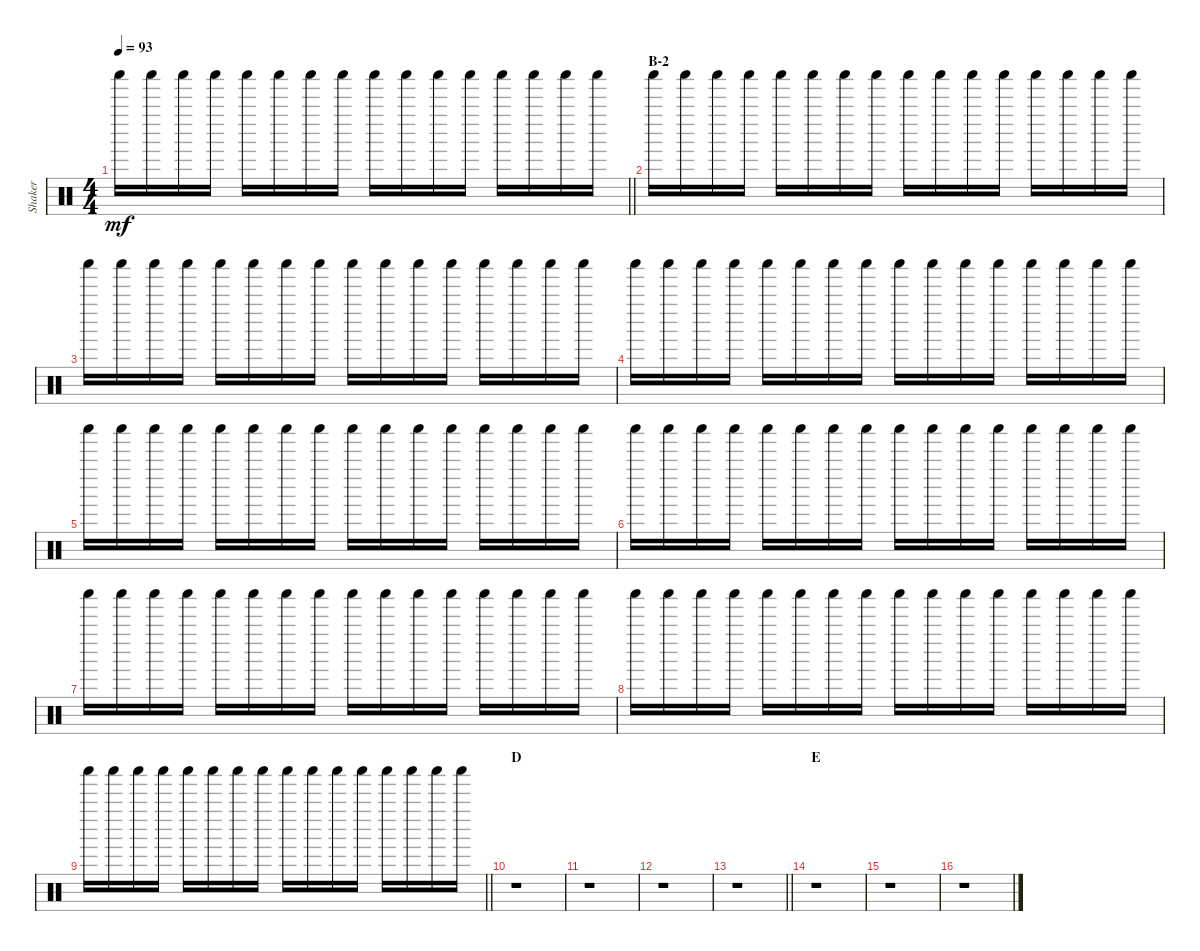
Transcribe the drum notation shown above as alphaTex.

\track ("Shaker" "Shaker") {instrument percussion}
\staff {score}
\articulation defaults
\ts (4 4)
\tempo 93
\clef neutral
\barLineRight lightlight
\ks c "Shaker (hit)".16{dy mf} "Shaker (hit)".16 "Shaker (hit)".16 "Shaker (hit)".16 "Shaker (hit)".16 "Shaker (hit)".16 "Shaker (hit)".16 "Shaker (hit)".16 "Shaker (hit)".16 "Shaker (hit)".16 "Shaker (hit)".16 "Shaker (hit)".16 "Shaker (hit)".16 "Shaker (hit)".16 "Shaker (hit)".16 "Shaker (hit)".16
|
\section ("" "B-2")
"Shaker (hit)".16 "Shaker (hit)".16 "Shaker (hit)".16 "Shaker (hit)".16 "Shaker (hit)".16 "Shaker (hit)".16 "Shaker (hit)".16 "Shaker (hit)".16 "Shaker (hit)".16 "Shaker (hit)".16 "Shaker (hit)".16 "Shaker (hit)".16 "Shaker (hit)".16 "Shaker (hit)".16 "Shaker (hit)".16 "Shaker (hit)".16 |
"Shaker (hit)".16 "Shaker (hit)".16 "Shaker (hit)".16 "Shaker (hit)".16 "Shaker (hit)".16 "Shaker (hit)".16 "Shaker (hit)".16 "Shaker (hit)".16 "Shaker (hit)".16 "Shaker (hit)".16 "Shaker (hit)".16 "Shaker (hit)".16 "Shaker (hit)".16 "Shaker (hit)".16 "Shaker (hit)".16 "Shaker (hit)".16 |
"Shaker (hit)".16 "Shaker (hit)".16 "Shaker (hit)".16 "Shaker (hit)".16 "Shaker (hit)".16 "Shaker (hit)".16 "Shaker (hit)".16 "Shaker (hit)".16 "Shaker (hit)".16 "Shaker (hit)".16 "Shaker (hit)".16 "Shaker (hit)".16 "Shaker (hit)".16 "Shaker (hit)".16 "Shaker (hit)".16 "Shaker (hit)".16 |
"Shaker (hit)".16 "Shaker (hit)".16 "Shaker (hit)".16 "Shaker (hit)".16 "Shaker (hit)".16 "Shaker (hit)".16 "Shaker (hit)".16 "Shaker (hit)".16 "Shaker (hit)".16 "Shaker (hit)".16 "Shaker (hit)".16 "Shaker (hit)".16 "Shaker (hit)".16 "Shaker (hit)".16 "Shaker (hit)".16 "Shaker (hit)".16 |
"Shaker (hit)".16 "Shaker (hit)".16 "Shaker (hit)".16 "Shaker (hit)".16 "Shaker (hit)".16 "Shaker (hit)".16 "Shaker (hit)".16 "Shaker (hit)".16 "Shaker (hit)".16 "Shaker (hit)".16 "Shaker (hit)".16 "Shaker (hit)".16 "Shaker (hit)".16 "Shaker (hit)".16 "Shaker (hit)".16 "Shaker (hit)".16 |
"Shaker (hit)".16 "Shaker (hit)".16 "Shaker (hit)".16 "Shaker (hit)".16 "Shaker (hit)".16 "Shaker (hit)".16 "Shaker (hit)".16 "Shaker (hit)".16 "Shaker (hit)".16 "Shaker (hit)".16 "Shaker (hit)".16 "Shaker (hit)".16 "Shaker (hit)".16 "Shaker (hit)".16 "Shaker (hit)".16 "Shaker (hit)".16 |
"Shaker (hit)".16 "Shaker (hit)".16 "Shaker (hit)".16 "Shaker (hit)".16 "Shaker (hit)".16 "Shaker (hit)".16 "Shaker (hit)".16 "Shaker (hit)".16 "Shaker (hit)".16 "Shaker (hit)".16 "Shaker (hit)".16 "Shaker (hit)".16 "Shaker (hit)".16 "Shaker (hit)".16 "Shaker (hit)".16 "Shaker (hit)".16 |
\barLineRight lightlight "Shaker (hit)".16 "Shaker (hit)".16 "Shaker (hit)".16 "Shaker (hit)".16 "Shaker (hit)".16 "Shaker (hit)".16 "Shaker (hit)".16 "Shaker (hit)".16 "Shaker (hit)".16 "Shaker (hit)".16 "Shaker (hit)".16 "Shaker (hit)".16 "Shaker (hit)".16 "Shaker (hit)".16 "Shaker (hit)".16 "Shaker (hit)".16
|
\section ("" "D")
r.1 |
r.1 |
r.1 |
\barLineRight lightlight
r.1 |
\section ("" "E")
r.1 |
r.1 |
r.1
